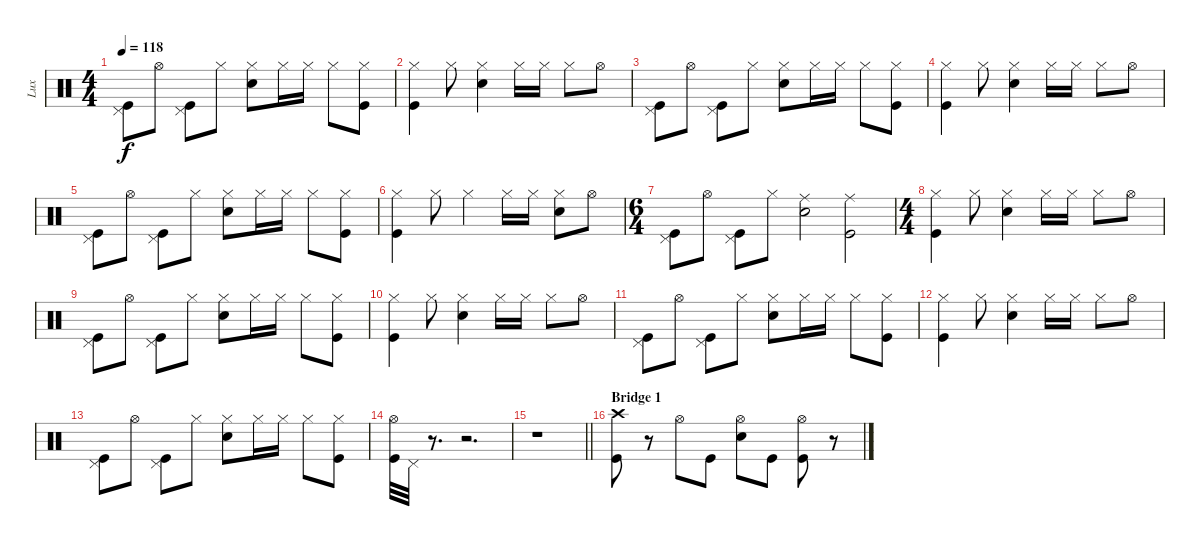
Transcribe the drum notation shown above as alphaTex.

\track ("Lux" "Lux") {instrument percussion}
\staff {score}
\articulation defaults
\ts (4 4)
\tempo 118
\clef neutral
\ks c
("Kick (hit)" "Pedal Hi-Hat (hit)").8{dy f} "Hi-Hat (open)".8 ("Kick (hit)" "Pedal Hi-Hat (hit)").8 "Hi-Hat (closed)".8 ("Hi-Hat (closed)" "Snare (hit) 2").8 "Hi-Hat (closed)".16 "Hi-Hat (closed)".16 "Hi-Hat (closed)".8 ("Hi-Hat (closed)" "Kick (hit)").8 |
("Hi-Hat (closed)" "Kick (hit)").4 "Hi-Hat (closed)".8 ("Hi-Hat (closed)" "Snare (hit) 2").4 "Hi-Hat (closed)".16 "Hi-Hat (closed)".16 "Hi-Hat (closed)".8 "Hi-Hat (open)".8 |
("Kick (hit)" "Pedal Hi-Hat (hit)").8 "Hi-Hat (open)".8 ("Kick (hit)" "Pedal Hi-Hat (hit)").8 "Hi-Hat (closed)".8 ("Hi-Hat (closed)" "Snare (hit) 2").8 "Hi-Hat (closed)".16 "Hi-Hat (closed)".16 "Hi-Hat (closed)".8 ("Hi-Hat (closed)" "Kick (hit)").8 |
("Hi-Hat (closed)" "Kick (hit)").4 "Hi-Hat (closed)".8 ("Hi-Hat (closed)" "Snare (hit) 2").4 "Hi-Hat (closed)".16 "Hi-Hat (closed)".16 "Hi-Hat (closed)".8 "Hi-Hat (open)".8 |
("Kick (hit)" "Pedal Hi-Hat (hit)").8 "Hi-Hat (open)".8 ("Kick (hit)" "Pedal Hi-Hat (hit)").8 "Hi-Hat (closed)".8 ("Hi-Hat (closed)" "Snare (hit) 2").8 "Hi-Hat (closed)".16 "Hi-Hat (closed)".16 "Hi-Hat (closed)".8 ("Hi-Hat (closed)" "Kick (hit)").8 |
("Hi-Hat (closed)" "Kick (hit)").4 "Hi-Hat (closed)".8 "Hi-Hat (closed)".4 "Hi-Hat (closed)".16 "Hi-Hat (closed)".16 ("Hi-Hat (closed)" "Snare (hit) 2").8 "Hi-Hat (open)".8 |
\ts (6 4)
("Kick (hit)" "Pedal Hi-Hat (hit)").8 "Hi-Hat (open)".8 ("Kick (hit)" "Pedal Hi-Hat (hit)").8 "Hi-Hat (closed)".8 ("Ride (middle)" "Snare (hit) 2").2 ("Ride (middle)" "Kick (hit)").2 |
\ts (4 4)
("Hi-Hat (closed)" "Kick (hit)").4 "Hi-Hat (closed)".8 ("Hi-Hat (closed)" "Snare (hit) 2").4 "Hi-Hat (closed)".16 "Hi-Hat (closed)".16 "Hi-Hat (closed)".8 "Hi-Hat (open)".8 |
("Kick (hit)" "Pedal Hi-Hat (hit)").8 "Hi-Hat (open)".8 ("Kick (hit)" "Pedal Hi-Hat (hit)").8 "Hi-Hat (closed)".8 ("Hi-Hat (closed)" "Snare (hit) 2").8 "Hi-Hat (closed)".16 "Hi-Hat (closed)".16 "Hi-Hat (closed)".8 ("Hi-Hat (closed)" "Kick (hit)").8 |
("Hi-Hat (closed)" "Kick (hit)").4 "Hi-Hat (closed)".8 ("Hi-Hat (closed)" "Snare (hit) 2").4 "Hi-Hat (closed)".16 "Hi-Hat (closed)".16 "Hi-Hat (closed)".8 "Hi-Hat (open)".8 |
("Kick (hit)" "Pedal Hi-Hat (hit)").8 "Hi-Hat (open)".8 ("Kick (hit)" "Pedal Hi-Hat (hit)").8 "Hi-Hat (closed)".8 ("Hi-Hat (closed)" "Snare (hit) 2").8 "Hi-Hat (closed)".16 "Hi-Hat (closed)".16 "Hi-Hat (closed)".8 ("Hi-Hat (closed)" "Kick (hit)").8 |
("Hi-Hat (closed)" "Kick (hit)").4 "Hi-Hat (closed)".8 ("Hi-Hat (closed)" "Snare (hit) 2").4 "Hi-Hat (closed)".16 "Hi-Hat (closed)".16 "Hi-Hat (closed)".8 "Hi-Hat (open)".8 |
("Kick (hit)" "Pedal Hi-Hat (hit)").8 "Hi-Hat (open)".8 ("Kick (hit)" "Pedal Hi-Hat (hit)").8 "Hi-Hat (closed)".8 ("Hi-Hat (closed)" "Snare (hit) 2").8 "Hi-Hat (closed)".16 "Hi-Hat (closed)".16 "Hi-Hat (closed)".8 ("Hi-Hat (closed)" "Kick (hit)").8 |
("Hi-Hat (open)" "Kick (hit)").32 "Pedal Hi-Hat (hit)".32 r.8{d} r.2{d} |
\barLineRight lightlight
r.1 |
\section ("" "Bridge 1")
("Crash high (hit)" "Kick (hit)").8 r.8 "Hi-Hat (open)".8 "Kick (hit)".8 ("Hi-Hat (open)" "Snare (hit) 2").8 "Kick (hit)".8 ("Hi-Hat (open)" "Kick (hit)").8 r.8
